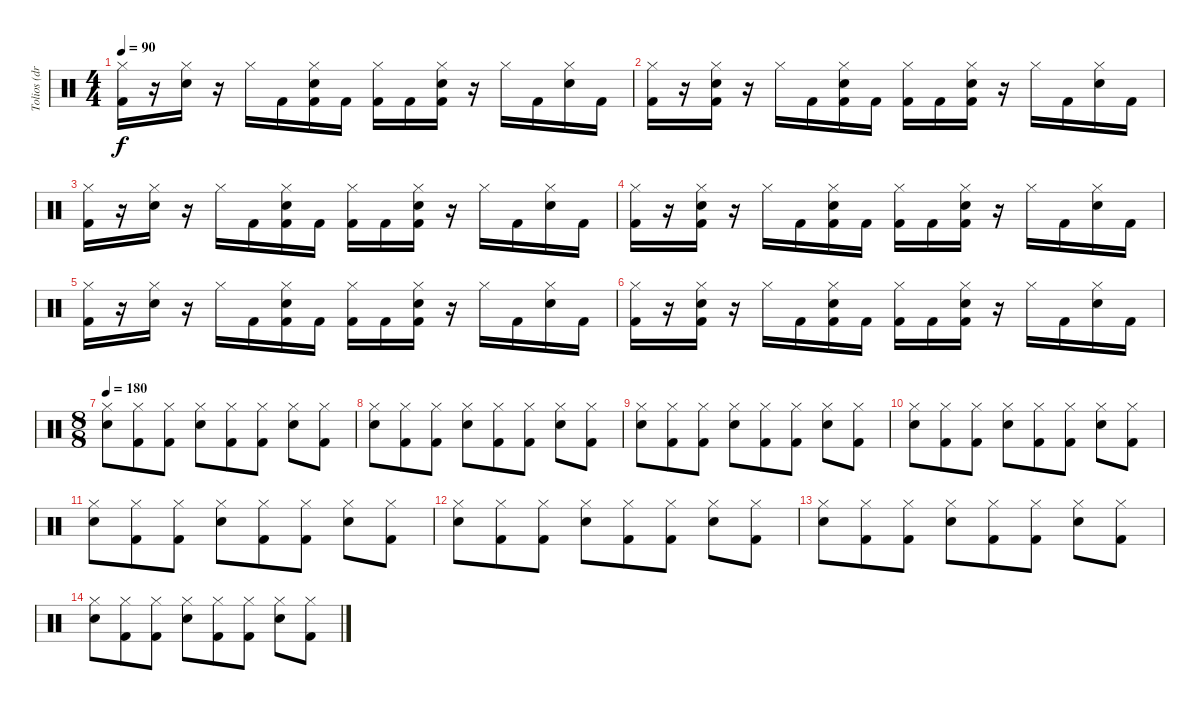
\track ("Tolios (drums)" "Tolios (dr") {instrument percussion}
\staff {score}
\articulation defaults
\ts (4 4)
\tempo 90
\clef neutral
\ks c
("Hi-Hat (closed)" "Kick (hit) 2").16{dy f} r.16 ("Hi-Hat (closed)" "Snare (hit) 2").16 r.16 "Hi-Hat (closed)".16 "Kick (hit) 2".16 ("Kick (hit) 2" "Hi-Hat (closed)" "Snare (hit) 2").16 "Kick (hit) 2".16 ("Kick (hit) 2" "Hi-Hat (closed)").16 "Kick (hit) 2".16 ("Snare (hit) 2" "Kick (hit) 2" "Hi-Hat (closed)").16 r.16 "Hi-Hat (closed)".16 "Kick (hit) 2".16 ("Snare (hit) 2" "Hi-Hat (closed)").16 "Kick (hit) 2".16 |
("Hi-Hat (closed)" "Kick (hit) 2").16 r.16 ("Hi-Hat (closed)" "Kick (hit) 2" "Snare (hit) 2").16 r.16 "Hi-Hat (closed)".16 "Kick (hit) 2".16 ("Kick (hit) 2" "Hi-Hat (closed)" "Snare (hit) 2").16 "Kick (hit) 2".16 ("Kick (hit) 2" "Hi-Hat (closed)").16 "Kick (hit) 2".16 ("Snare (hit) 2" "Kick (hit) 2" "Hi-Hat (closed)").16 r.16 "Hi-Hat (closed)".16 "Kick (hit) 2".16 ("Snare (hit) 2" "Hi-Hat (closed)").16 "Kick (hit) 2".16 |
("Hi-Hat (closed)" "Kick (hit) 2").16 r.16 ("Hi-Hat (closed)" "Snare (hit) 2").16 r.16 "Hi-Hat (closed)".16 "Kick (hit) 2".16 ("Kick (hit) 2" "Hi-Hat (closed)" "Snare (hit) 2").16 "Kick (hit) 2".16 ("Kick (hit) 2" "Hi-Hat (closed)").16 "Kick (hit) 2".16 ("Snare (hit) 2" "Kick (hit) 2" "Hi-Hat (closed)").16 r.16 "Hi-Hat (closed)".16 "Kick (hit) 2".16 ("Snare (hit) 2" "Hi-Hat (closed)").16 "Kick (hit) 2".16 |
("Hi-Hat (closed)" "Kick (hit) 2").16 r.16 ("Hi-Hat (closed)" "Kick (hit) 2" "Snare (hit) 2").16 r.16 "Hi-Hat (closed)".16 "Kick (hit) 2".16 ("Kick (hit) 2" "Hi-Hat (closed)" "Snare (hit) 2").16 "Kick (hit) 2".16 ("Kick (hit) 2" "Hi-Hat (closed)").16 "Kick (hit) 2".16 ("Snare (hit) 2" "Kick (hit) 2" "Hi-Hat (closed)").16 r.16 "Hi-Hat (closed)".16 "Kick (hit) 2".16 ("Snare (hit) 2" "Hi-Hat (closed)").16 "Kick (hit) 2".16 |
("Hi-Hat (closed)" "Kick (hit) 2").16 r.16 ("Hi-Hat (closed)" "Snare (hit) 2").16 r.16 "Hi-Hat (closed)".16 "Kick (hit) 2".16 ("Kick (hit) 2" "Hi-Hat (closed)" "Snare (hit) 2").16 "Kick (hit) 2".16 ("Kick (hit) 2" "Hi-Hat (closed)").16 "Kick (hit) 2".16 ("Snare (hit) 2" "Kick (hit) 2" "Hi-Hat (closed)").16 r.16 "Hi-Hat (closed)".16 "Kick (hit) 2".16 ("Snare (hit) 2" "Hi-Hat (closed)").16 "Kick (hit) 2".16 |
("Hi-Hat (closed)" "Kick (hit) 2").16 r.16 ("Hi-Hat (closed)" "Kick (hit) 2" "Snare (hit) 2").16 r.16 "Hi-Hat (closed)".16 "Kick (hit) 2".16 ("Kick (hit) 2" "Hi-Hat (closed)" "Snare (hit) 2").16 "Kick (hit) 2".16 ("Kick (hit) 2" "Hi-Hat (closed)").16 "Kick (hit) 2".16 ("Snare (hit) 2" "Kick (hit) 2" "Hi-Hat (closed)").16 r.16 "Hi-Hat (closed)".16 "Kick (hit) 2".16 ("Snare (hit) 2" "Hi-Hat (closed)").16 "Kick (hit) 2".16 |
\ts (8 8)
\tempo 180
("Hi-Hat (closed)" "Snare (hit) 2").8 ("Hi-Hat (closed)" "Kick (hit) 2").8 ("Hi-Hat (closed)" "Kick (hit) 2").8 ("Hi-Hat (closed)" "Snare (hit) 2").8 ("Hi-Hat (closed)" "Kick (hit) 2").8 ("Hi-Hat (closed)" "Kick (hit) 2").8 ("Hi-Hat (closed)" "Snare (hit) 2").8 ("Hi-Hat (closed)" "Kick (hit) 2").8 |
("Hi-Hat (closed)" "Snare (hit) 2").8 ("Hi-Hat (closed)" "Kick (hit) 2").8 ("Hi-Hat (closed)" "Kick (hit) 2").8 ("Hi-Hat (closed)" "Snare (hit) 2").8 ("Hi-Hat (closed)" "Kick (hit) 2").8 ("Hi-Hat (closed)" "Kick (hit) 2").8 ("Hi-Hat (closed)" "Snare (hit) 2").8 ("Hi-Hat (closed)" "Kick (hit) 2").8 |
("Hi-Hat (closed)" "Snare (hit) 2").8 ("Hi-Hat (closed)" "Kick (hit) 2").8 ("Hi-Hat (closed)" "Kick (hit) 2").8 ("Hi-Hat (closed)" "Snare (hit) 2").8 ("Hi-Hat (closed)" "Kick (hit) 2").8 ("Hi-Hat (closed)" "Kick (hit) 2").8 ("Hi-Hat (closed)" "Snare (hit) 2").8 ("Hi-Hat (closed)" "Kick (hit) 2").8 |
("Hi-Hat (closed)" "Snare (hit) 2").8 ("Hi-Hat (closed)" "Kick (hit) 2").8 ("Hi-Hat (closed)" "Kick (hit) 2").8 ("Hi-Hat (closed)" "Snare (hit) 2").8 ("Hi-Hat (closed)" "Kick (hit) 2").8 ("Hi-Hat (closed)" "Kick (hit) 2").8 ("Hi-Hat (closed)" "Snare (hit) 2").8 ("Hi-Hat (closed)" "Kick (hit) 2").8 |
("Hi-Hat (closed)" "Snare (hit) 2").8 ("Hi-Hat (closed)" "Kick (hit) 2").8 ("Hi-Hat (closed)" "Kick (hit) 2").8 ("Hi-Hat (closed)" "Snare (hit) 2").8 ("Hi-Hat (closed)" "Kick (hit) 2").8 ("Hi-Hat (closed)" "Kick (hit) 2").8 ("Hi-Hat (closed)" "Snare (hit) 2").8 ("Hi-Hat (closed)" "Kick (hit) 2").8 |
("Hi-Hat (closed)" "Snare (hit) 2").8 ("Hi-Hat (closed)" "Kick (hit) 2").8 ("Hi-Hat (closed)" "Kick (hit) 2").8 ("Hi-Hat (closed)" "Snare (hit) 2").8 ("Hi-Hat (closed)" "Kick (hit) 2").8 ("Hi-Hat (closed)" "Kick (hit) 2").8 ("Hi-Hat (closed)" "Snare (hit) 2").8 ("Hi-Hat (closed)" "Kick (hit) 2").8 |
("Hi-Hat (closed)" "Snare (hit) 2").8 ("Hi-Hat (closed)" "Kick (hit) 2").8 ("Hi-Hat (closed)" "Kick (hit) 2").8 ("Hi-Hat (closed)" "Snare (hit) 2").8 ("Hi-Hat (closed)" "Kick (hit) 2").8 ("Hi-Hat (closed)" "Kick (hit) 2").8 ("Hi-Hat (closed)" "Snare (hit) 2").8 ("Hi-Hat (closed)" "Kick (hit) 2").8 |
("Hi-Hat (closed)" "Snare (hit) 2").8 ("Hi-Hat (closed)" "Kick (hit) 2").8 ("Hi-Hat (closed)" "Kick (hit) 2").8 ("Hi-Hat (closed)" "Snare (hit) 2").8 ("Hi-Hat (closed)" "Kick (hit) 2").8 ("Hi-Hat (closed)" "Kick (hit) 2").8 ("Hi-Hat (closed)" "Snare (hit) 2").8 ("Hi-Hat (closed)" "Kick (hit) 2").8
